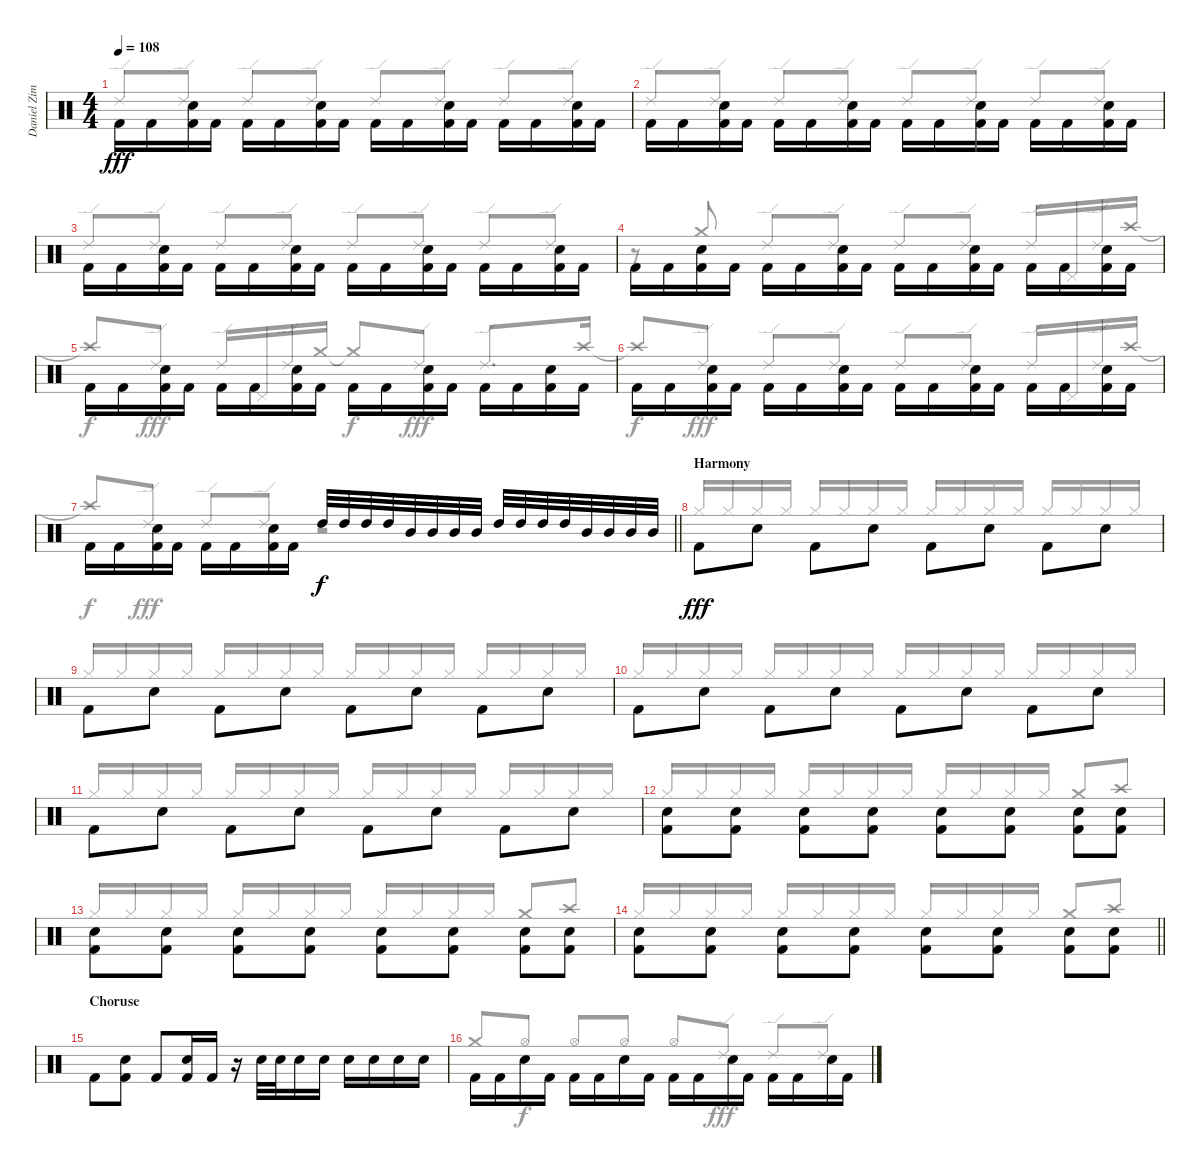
\track ("Daniel Zimmermann Drums" "Daniel Zim") {instrument percussion}
\staff {score}
\articulation defaults
\voice
\ts (4 4)
\tempo 108
\clef neutral
\ks c "Kick (hit) 2".16{dy fff beam Down} "Kick (hit) 2".16{beam Down}
("Snare (hit) 2" "Kick (hit) 2").16{beam Down} "Kick (hit) 2".16{beam Down} "Kick (hit) 2".16{beam Down} "Kick (hit) 2".16{beam Down} ("Snare (hit) 2" "Kick (hit) 2").16{beam Down} "Kick (hit) 2".16{beam Down} "Kick (hit) 2".16{beam Down} "Kick (hit) 2".16{beam Down} ("Snare (hit) 2" "Kick (hit) 2").16{beam Down} "Kick (hit) 2".16{beam Down} "Kick (hit) 2".16{beam Down} "Kick (hit) 2".16{beam Down} ("Snare (hit) 2" "Kick (hit) 2").16{beam Down} "Kick (hit) 2".16{beam Down} |
"Kick (hit) 2".16{beam Down} "Kick (hit) 2".16{beam Down} ("Snare (hit) 2" "Kick (hit) 2").16{beam Down} "Kick (hit) 2".16{beam Down} "Kick (hit) 2".16{beam Down} "Kick (hit) 2".16{beam Down} ("Snare (hit) 2" "Kick (hit) 2").16{beam Down} "Kick (hit) 2".16{beam Down} "Kick (hit) 2".16{beam Down} "Kick (hit) 2".16{beam Down} ("Snare (hit) 2" "Kick (hit) 2").16{beam Down} "Kick (hit) 2".16{beam Down} "Kick (hit) 2".16{beam Down} "Kick (hit) 2".16{beam Down} ("Snare (hit) 2" "Kick (hit) 2").16{beam Down} "Kick (hit) 2".16{beam Down} |
"Kick (hit) 2".16{beam Down} "Kick (hit) 2".16{beam Down} ("Snare (hit) 2" "Kick (hit) 2").16{beam Down} "Kick (hit) 2".16{beam Down} "Kick (hit) 2".16{beam Down} "Kick (hit) 2".16{beam Down} ("Snare (hit) 2" "Kick (hit) 2").16{beam Down} "Kick (hit) 2".16{beam Down} "Kick (hit) 2".16{beam Down} "Kick (hit) 2".16{beam Down} ("Snare (hit) 2" "Kick (hit) 2").16{beam Down} "Kick (hit) 2".16{beam Down} "Kick (hit) 2".16{beam Down} "Kick (hit) 2".16{beam Down} ("Snare (hit) 2" "Kick (hit) 2").16{beam Down} "Kick (hit) 2".16{beam Down} |
"Kick (hit) 2".16{beam Down} "Kick (hit) 2".16{beam Down} ("Snare (hit) 2" "Kick (hit) 2").16{beam Down} "Kick (hit) 2".16{beam Down} "Kick (hit) 2".16{beam Down} "Kick (hit) 2".16{beam Down} ("Snare (hit) 2" "Kick (hit) 2").16{beam Down} "Kick (hit) 2".16{beam Down} "Kick (hit) 2".16{beam Down} "Kick (hit) 2".16{beam Down} ("Snare (hit) 2" "Kick (hit) 2").16{beam Down} "Kick (hit) 2".16{beam Down} "Kick (hit) 2".16{beam Down} "Kick (hit) 2".16{beam Down} ("Snare (hit) 2" "Kick (hit) 2").16{beam Down} "Kick (hit) 2".16{beam Down} |
"Kick (hit) 2".16{beam Down} "Kick (hit) 2".16{beam Down} ("Snare (hit) 2" "Kick (hit) 2").16{beam Down} "Kick (hit) 2".16{beam Down} "Kick (hit) 2".16{beam Down} "Kick (hit) 2".16{beam Down} ("Snare (hit) 2" "Kick (hit) 2").16{beam Down} "Kick (hit) 2".16{beam Down} "Kick (hit) 2".16{beam Down} "Kick (hit) 2".16{beam Down} ("Snare (hit) 2" "Kick (hit) 2").16{beam Down} "Kick (hit) 2".16{beam Down} "Kick (hit) 2".16{beam Down} "Kick (hit) 2".16{beam Down} ("Snare (hit) 2" "Kick (hit) 2").16{beam Down} "Kick (hit) 2".16{beam Down} |
"Kick (hit) 2".16{beam Down} "Kick (hit) 2".16{beam Down} ("Snare (hit) 2" "Kick (hit) 2").16{beam Down} "Kick (hit) 2".16{beam Down} "Kick (hit) 2".16{beam Down} "Kick (hit) 2".16{beam Down} ("Snare (hit) 2" "Kick (hit) 2").16{beam Down} "Kick (hit) 2".16{beam Down} "Kick (hit) 2".16{beam Down} "Kick (hit) 2".16{beam Down} ("Snare (hit) 2" "Kick (hit) 2").16{beam Down} "Kick (hit) 2".16{beam Down} "Kick (hit) 2".16{beam Down} "Kick (hit) 2".16{beam Down} ("Snare (hit) 2" "Kick (hit) 2").16{beam Down} "Kick (hit) 2".16{beam Down} |
\barLineRight lightlight "Kick (hit) 2".16{beam Down} "Kick (hit) 2".16{beam Down}
("Snare (hit) 2" "Kick (hit) 2").16{beam Down} "Kick (hit) 2".16{beam Down} "Kick (hit) 2".16{beam Down} "Kick (hit) 2".16{beam Down} ("Snare (hit) 2" "Kick (hit) 2").16{beam Down} "Kick (hit) 2".16{beam Down} "High Tom (hit)".32{dy f} "High Tom (hit)".32 "High Tom (hit)".32 "High Tom (hit)".32 "Mid Tom (hit)".32 "Mid Tom (hit)".32 "Mid Tom (hit)".32 "Mid Tom (hit)".32 "High Tom (hit)".32 "High Tom (hit)".32 "High Tom (hit)".32 "High Tom (hit)".32 "Mid Tom (hit)".32 "Mid Tom (hit)".32 "Mid Tom (hit)".32 "Mid Tom (hit)".32 |
\section ("" "Harmony")
"Kick (hit) 2".8{dy fff beam Down} "Snare (hit) 2".8{beam Down} "Kick (hit) 2".8{beam Down} "Snare (hit) 2".8{beam Down} "Kick (hit) 2".8{beam Down} "Snare (hit) 2".8{beam Down} "Kick (hit) 2".8{beam Down} "Snare (hit) 2".8{beam Down} |
"Kick (hit) 2".8{beam Down} "Snare (hit) 2".8{beam Down} "Kick (hit) 2".8{beam Down} "Snare (hit) 2".8{beam Down} "Kick (hit) 2".8{beam Down} "Snare (hit) 2".8{beam Down} "Kick (hit) 2".8{beam Down} "Snare (hit) 2".8{beam Down} |
"Kick (hit) 2".8{beam Down} "Snare (hit) 2".8{beam Down} "Kick (hit) 2".8{beam Down} "Snare (hit) 2".8{beam Down} "Kick (hit) 2".8{beam Down} "Snare (hit) 2".8{beam Down} "Kick (hit) 2".8{beam Down} "Snare (hit) 2".8{beam Down} |
"Kick (hit) 2".8{beam Down} "Snare (hit) 2".8{beam Down} "Kick (hit) 2".8{beam Down} "Snare (hit) 2".8{beam Down} "Kick (hit) 2".8{beam Down} "Snare (hit) 2".8{beam Down} "Kick (hit) 2".8{beam Down} "Snare (hit) 2".8{beam Down} |
("Snare (hit) 2" "Kick (hit) 2").8{beam Down} ("Snare (hit) 2" "Kick (hit) 2").8{beam Down} ("Snare (hit) 2" "Kick (hit) 2").8{beam Down} ("Snare (hit) 2" "Kick (hit) 2").8{beam Down} ("Snare (hit) 2" "Kick (hit) 2").8{beam Down} ("Snare (hit) 2" "Kick (hit) 2").8{beam Down} ("Snare (hit) 2" "Kick (hit) 2").8{beam Down} ("Snare (hit) 2" "Kick (hit) 2").8{beam Down} |
("Snare (hit) 2" "Kick (hit) 2").8{beam Down} ("Snare (hit) 2" "Kick (hit) 2").8{beam Down} ("Snare (hit) 2" "Kick (hit) 2").8{beam Down} ("Snare (hit) 2" "Kick (hit) 2").8{beam Down} ("Snare (hit) 2" "Kick (hit) 2").8{beam Down} ("Snare (hit) 2" "Kick (hit) 2").8{beam Down} ("Snare (hit) 2" "Kick (hit) 2").8{beam Down} ("Snare (hit) 2" "Kick (hit) 2").8{beam Down} |
\barLineRight lightlight
("Snare (hit) 2" "Kick (hit) 2").8{beam Down} ("Snare (hit) 2" "Kick (hit) 2").8{beam Down} ("Snare (hit) 2" "Kick (hit) 2").8{beam Down} ("Snare (hit) 2" "Kick (hit) 2").8{beam Down} ("Snare (hit) 2" "Kick (hit) 2").8{beam Down} ("Snare (hit) 2" "Kick (hit) 2").8{beam Down} ("Snare (hit) 2" "Kick (hit) 2").8{beam Down} ("Snare (hit) 2" "Kick (hit) 2").8{beam Down} |
\section ("" "Choruse")
"Kick (hit) 2".8{beam Down} ("Snare (hit) 2" "Kick (hit) 2").8{beam Down} "Kick (hit) 2".8 ("Snare (hit) 2" "Kick (hit) 2").16 "Kick (hit) 2".16 r.16 "Snare (hit) 2".32 "Snare (hit) 2".32 "Snare (hit) 2".16 "Snare (hit) 2".16 "Snare (hit) 2".16 "Snare (hit) 2".16 "Snare (hit) 2".16 "Snare (hit) 2".16 |
"Kick (hit) 2".16{beam Down} "Kick (hit) 2".16{beam Down} "Snare (hit) 2".16{beam Down} "Kick (hit) 2".16{beam Down} "Kick (hit) 2".16{beam Down} "Kick (hit) 2".16{beam Down} "Snare (hit) 2".16{beam Down} "Kick (hit) 2".16{beam Down} "Kick (hit) 2".16{beam Down} "Kick (hit) 2".16{beam Down} "Snare (hit) 2".16{beam Down} "Kick (hit) 2".16{beam Down} "Kick (hit) 2".16{beam Down} "Kick (hit) 2".16{beam Down} "Snare (hit) 2".16{beam Down} "Kick (hit) 2".16{beam Down}
\voice
\clef neutral
\ottava regular
\simile none
\ks c "Ride (edge) 2".8{dy fff beam Up} "Ride (edge) 2".8{beam Up} "Ride (edge) 2".8{beam Up} "Ride (edge) 2".8{beam Up} "Ride (edge) 2".8{beam Up} "Ride (edge) 2".8{beam Up} "Ride (edge) 2".8{beam Up} "Ride (edge) 2".8{beam Up}
|
"Ride (edge) 2".8{beam Up} "Ride (edge) 2".8{beam Up} "Ride (edge) 2".8{beam Up} "Ride (edge) 2".8{beam Up} "Ride (edge) 2".8{beam Up} "Ride (edge) 2".8{beam Up} "Ride (edge) 2".8{beam Up} "Ride (edge) 2".8{beam Up} |
"Ride (edge) 2".8{beam Up} "Ride (edge) 2".8{beam Up} "Ride (edge) 2".8{beam Up} "Ride (edge) 2".8{beam Up} "Ride (edge) 2".8{beam Up} "Ride (edge) 2".8{beam Up} "Ride (edge) 2".8{beam Up} "Ride (edge) 2".8{beam Up} |
r.8 "Crash medium (hit)".8{beam Up} "Ride (edge) 2".8{beam Up} "Ride (edge) 2".8{beam Up} "Ride (edge) 2".8{beam Up} "Ride (edge) 2".8{beam Up} "Ride (edge) 2".16{beam Up} "Pedal Hi-Hat (hit)".16{beam Up} "Ride (edge) 2".16{beam Up} "Crash high (hit)".16{beam Up} |
"Crash high (hit)"{t}.8{dy f beam Up} "Ride (edge) 2".8{dy fff beam Up} "Ride (edge) 2".16{beam Up} "Pedal Hi-Hat (hit)".16 "Ride (edge) 2".16 "Crash medium (hit)".16 "Crash medium (hit)"{t}.8{dy f beam Up} "Ride (edge) 2".8{dy fff beam Up} "Ride (edge) 2".8{d beam Up} "Crash high (hit)".16{beam Up} |
"Crash high (hit)"{t}.8{dy f beam Up} "Ride (edge) 2".8{dy fff beam Up} "Ride (edge) 2".8{beam Up} "Ride (edge) 2".8{beam Up} "Ride (edge) 2".8{beam Up} "Ride (edge) 2".8{beam Up} "Ride (edge) 2".16{beam Up} "Pedal Hi-Hat (hit)".16{beam Up} "Ride (edge) 2".16{beam Up} "Crash high (hit)".16{beam Up} |
\barLineRight lightlight "Crash high (hit)"{t}.8{dy f beam Up} "Ride (edge) 2".8{dy fff beam Up} "Ride (edge) 2".8{beam Up} "Ride (edge) 2".8{beam Up}
r.2 |
"Hi-Hat (closed)".16{beam Up} "Hi-Hat (closed)".16{beam Up} "Hi-Hat (closed)".16{beam Up} "Hi-Hat (closed)".16{beam Up} "Hi-Hat (closed)".16{beam Up} "Hi-Hat (closed)".16{beam Up} "Hi-Hat (closed)".16{beam Up} "Hi-Hat (closed)".16{beam Up} "Hi-Hat (closed)".16{beam Up} "Hi-Hat (closed)".16{beam Up} "Hi-Hat (closed)".16{beam Up} "Hi-Hat (closed)".16{beam Up} "Hi-Hat (closed)".16{beam Up} "Hi-Hat (closed)".16{beam Up} "Hi-Hat (closed)".16{beam Up} "Hi-Hat (closed)".16{beam Up} |
"Hi-Hat (closed)".16{beam Up} "Hi-Hat (closed)".16{beam Up} "Hi-Hat (closed)".16{beam Up} "Hi-Hat (closed)".16{beam Up} "Hi-Hat (closed)".16{beam Up} "Hi-Hat (closed)".16{beam Up} "Hi-Hat (closed)".16{beam Up} "Hi-Hat (closed)".16{beam Up} "Hi-Hat (closed)".16{beam Up} "Hi-Hat (closed)".16{beam Up} "Hi-Hat (closed)".16{beam Up} "Hi-Hat (closed)".16{beam Up} "Hi-Hat (closed)".16{beam Up} "Hi-Hat (closed)".16{beam Up} "Hi-Hat (closed)".16{beam Up} "Hi-Hat (closed)".16{beam Up} |
"Hi-Hat (closed)".16{beam Up} "Hi-Hat (closed)".16{beam Up} "Hi-Hat (closed)".16{beam Up} "Hi-Hat (closed)".16{beam Up} "Hi-Hat (closed)".16{beam Up} "Hi-Hat (closed)".16{beam Up} "Hi-Hat (closed)".16{beam Up} "Hi-Hat (closed)".16{beam Up} "Hi-Hat (closed)".16{beam Up} "Hi-Hat (closed)".16{beam Up} "Hi-Hat (closed)".16{beam Up} "Hi-Hat (closed)".16{beam Up} "Hi-Hat (closed)".16{beam Up} "Hi-Hat (closed)".16{beam Up} "Hi-Hat (closed)".16{beam Up} "Hi-Hat (closed)".16{beam Up} |
"Hi-Hat (closed)".16{beam Up} "Hi-Hat (closed)".16{beam Up} "Hi-Hat (closed)".16{beam Up} "Hi-Hat (closed)".16{beam Up} "Hi-Hat (closed)".16{beam Up} "Hi-Hat (closed)".16{beam Up} "Hi-Hat (closed)".16{beam Up} "Hi-Hat (closed)".16{beam Up} "Hi-Hat (closed)".16{beam Up} "Hi-Hat (closed)".16{beam Up} "Hi-Hat (closed)".16{beam Up} "Hi-Hat (closed)".16{beam Up} "Hi-Hat (closed)".16{beam Up} "Hi-Hat (closed)".16{beam Up} "Hi-Hat (closed)".16{beam Up} "Hi-Hat (closed)".16{beam Up} |
"Hi-Hat (closed)".16{beam Up} "Hi-Hat (closed)".16{beam Up} "Hi-Hat (closed)".16{beam Up} "Hi-Hat (closed)".16{beam Up} "Hi-Hat (closed)".16{beam Up} "Hi-Hat (closed)".16{beam Up} "Hi-Hat (closed)".16{beam Up} "Hi-Hat (closed)".16{beam Up} "Hi-Hat (closed)".16{beam Up} "Hi-Hat (closed)".16{beam Up} "Hi-Hat (closed)".16{beam Up} "Hi-Hat (closed)".16{beam Up} "Crash medium (hit)".8{beam Up} "Crash high (hit)".8{beam Up} |
"Hi-Hat (closed)".16{beam Up} "Hi-Hat (closed)".16{beam Up} "Hi-Hat (closed)".16{beam Up} "Hi-Hat (closed)".16{beam Up} "Hi-Hat (closed)".16{beam Up} "Hi-Hat (closed)".16{beam Up} "Hi-Hat (closed)".16{beam Up} "Hi-Hat (closed)".16{beam Up} "Hi-Hat (closed)".16{beam Up} "Hi-Hat (closed)".16{beam Up} "Hi-Hat (closed)".16{beam Up} "Hi-Hat (closed)".16{beam Up} "Crash medium (hit)".8{beam Up} "Crash high (hit)".8{beam Up} |
\barLineRight lightlight "Hi-Hat (closed)".16{beam Up} "Hi-Hat (closed)".16{beam Up} "Hi-Hat (closed)".16{beam Up} "Hi-Hat (closed)".16{beam Up} "Hi-Hat (closed)".16{beam Up} "Hi-Hat (closed)".16{beam Up} "Hi-Hat (closed)".16{beam Up} "Hi-Hat (closed)".16{beam Up} "Hi-Hat (closed)".16{beam Up} "Hi-Hat (closed)".16{beam Up} "Hi-Hat (closed)".16{beam Up} "Hi-Hat (closed)".16{beam Up} "Crash medium (hit)".8{beam Up} "Crash high (hit)".8{beam Up}
|
|
"Crash medium (hit)".8{beam Up} "Hi-Hat (open)".8{dy f beam Up} "Hi-Hat (open)".8{beam Up} "Hi-Hat (open)".8{beam Up} "Hi-Hat (open)".8{beam Up} "Ride (edge) 2".8{dy fff beam Up} "Ride (edge) 2".8{beam Up} "Ride (edge) 2".8{beam Up}
